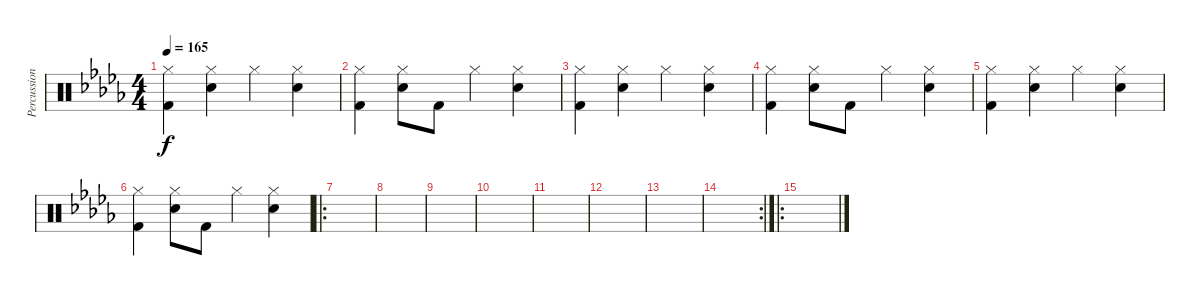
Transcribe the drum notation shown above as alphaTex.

\track ("Percussion" "Percussion") {instrument percussion}
\staff {score}
\articulation defaults
\ts (4 4)
\tempo 165
\clef neutral
\ks db
("Hi-Hat (closed)" "Kick (hit) 2").4{dy f} ("Hi-Hat (closed)" "Snare (hit) 2").4 "Hi-Hat (closed)".4 ("Hi-Hat (closed)" "Snare (hit) 2").4 |
("Hi-Hat (closed)" "Kick (hit) 2").4 ("Hi-Hat (closed)" "Snare (hit) 2").8 "Kick (hit) 2".8 "Hi-Hat (closed)".4 ("Hi-Hat (closed)" "Snare (hit) 2").4 |
("Hi-Hat (closed)" "Kick (hit) 2").4 ("Hi-Hat (closed)" "Snare (hit) 2").4 "Hi-Hat (closed)".4 ("Hi-Hat (closed)" "Snare (hit) 2").4 |
("Hi-Hat (closed)" "Kick (hit) 2").4 ("Hi-Hat (closed)" "Snare (hit) 2").8 "Kick (hit) 2".8 "Hi-Hat (closed)".4 ("Hi-Hat (closed)" "Snare (hit) 2").4 |
("Hi-Hat (closed)" "Kick (hit) 2").4 ("Hi-Hat (closed)" "Snare (hit) 2").4 "Hi-Hat (closed)".4 ("Hi-Hat (closed)" "Snare (hit) 2").4 |
("Hi-Hat (closed)" "Kick (hit) 2").4 ("Hi-Hat (closed)" "Snare (hit) 2").8 "Kick (hit) 2".8 "Hi-Hat (closed)".4 ("Hi-Hat (closed)" "Snare (hit) 2").4 |
\ro
|
|
|
|
|
|
|
\rc 2
|
\ro
